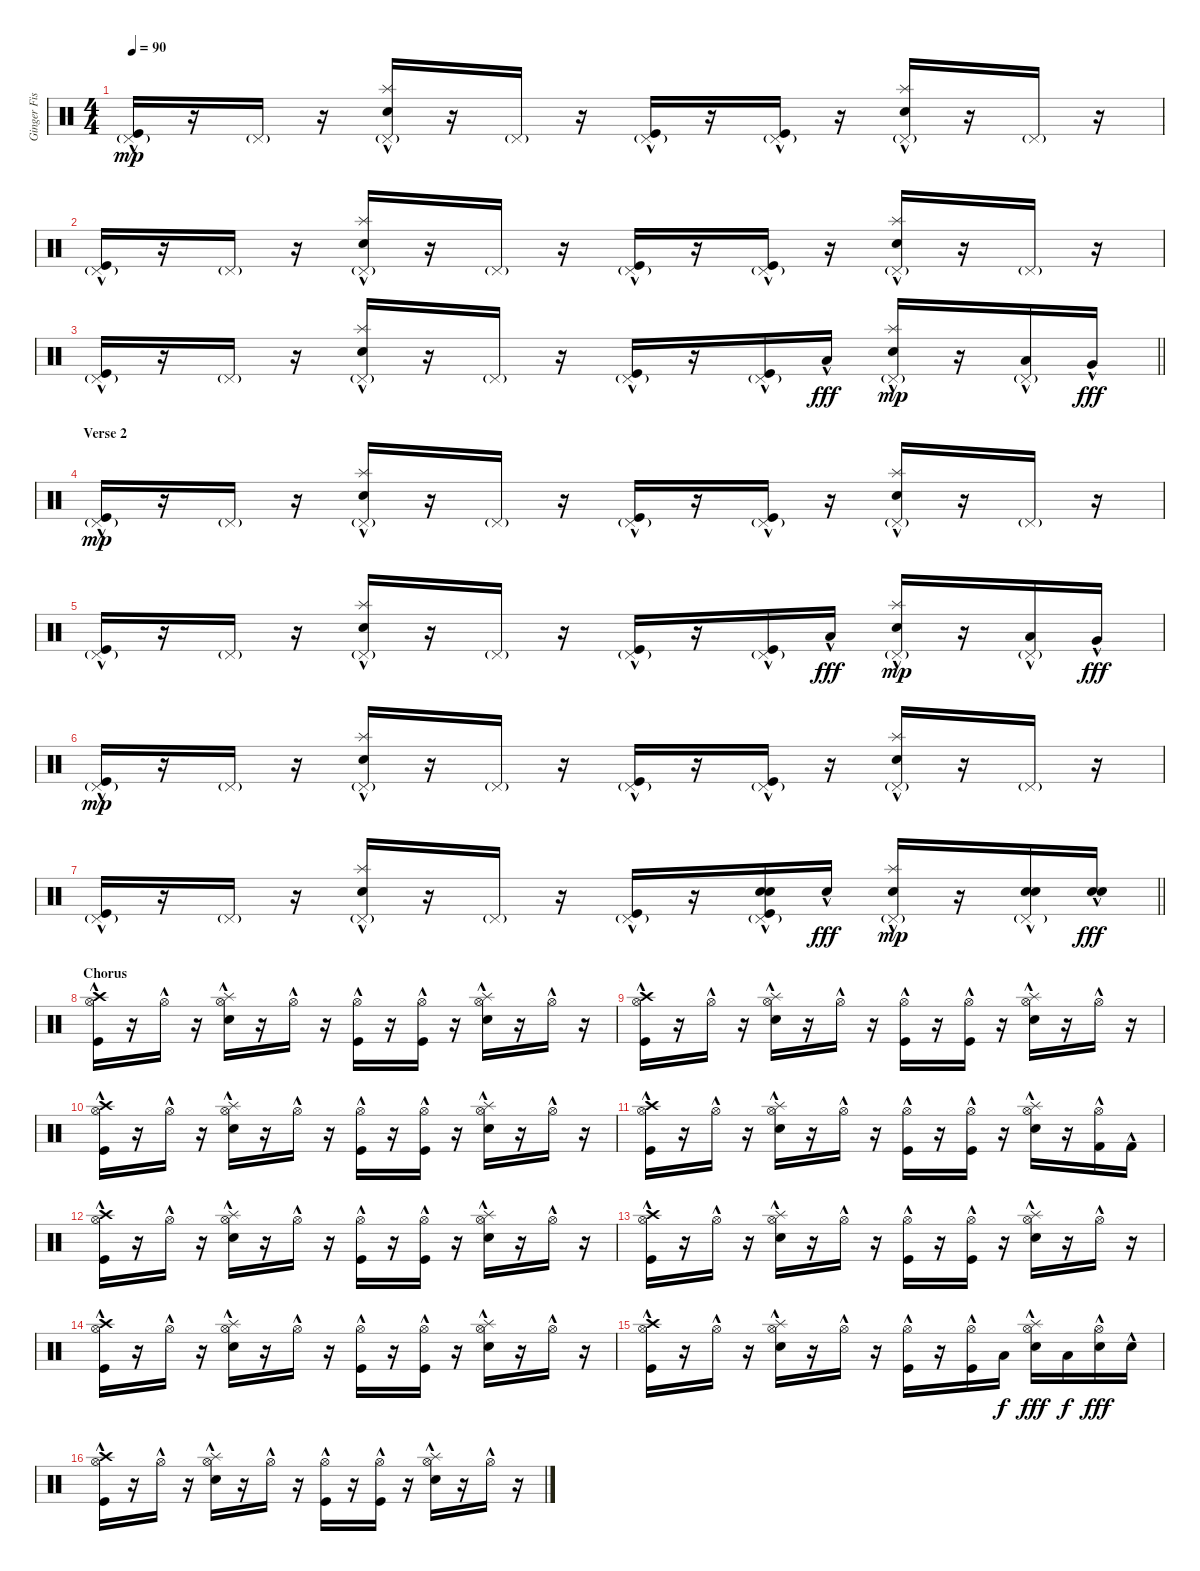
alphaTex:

\track ("Ginger Fish" "Ginger Fis") {instrument percussion}
\staff {score}
\articulation defaults
\ts (4 4)
\tempo 90
\clef neutral
\ks c
("Kick (hit)"{hac} "Pedal Hi-Hat (hit)"{g}).16{dy mp} r.16 "Pedal Hi-Hat (hit)"{g}.16 r.16 ("Splash (hit)" "Electric Snare (hit)"{hac} "Pedal Hi-Hat (hit)"{g}).16 r.16 "Pedal Hi-Hat (hit)"{g}.16 r.16 ("Kick (hit)"{hac} "Pedal Hi-Hat (hit)"{g}).16 r.16 ("Kick (hit)"{hac} "Pedal Hi-Hat (hit)"{g}).16 r.16 ("Splash (hit)" "Electric Snare (hit)"{hac} "Pedal Hi-Hat (hit)"{g}).16 r.16 "Pedal Hi-Hat (hit)"{g}.16 r.16 |
("Kick (hit)"{hac} "Pedal Hi-Hat (hit)"{g}).16 r.16 "Pedal Hi-Hat (hit)"{g}.16 r.16 ("Splash (hit)" "Electric Snare (hit)"{hac} "Pedal Hi-Hat (hit)"{g}).16 r.16 "Pedal Hi-Hat (hit)"{g}.16 r.16 ("Kick (hit)"{hac} "Pedal Hi-Hat (hit)"{g}).16 r.16 ("Kick (hit)"{hac} "Pedal Hi-Hat (hit)"{g}).16 r.16 ("Splash (hit)" "Electric Snare (hit)"{hac} "Pedal Hi-Hat (hit)"{g}).16 r.16 "Pedal Hi-Hat (hit)"{g}.16 r.16 |
\barLineRight lightlight
("Kick (hit)"{hac} "Pedal Hi-Hat (hit)"{g}).16 r.16 "Pedal Hi-Hat (hit)"{g}.16 r.16 ("Splash (hit)" "Electric Snare (hit)"{hac} "Pedal Hi-Hat (hit)"{g}).16 r.16 "Pedal Hi-Hat (hit)"{g}.16 r.16 ("Kick (hit)"{hac} "Pedal Hi-Hat (hit)"{g}).16 r.16 ("Kick (hit)"{hac} "Pedal Hi-Hat (hit)"{g}).16 "Low Tom (hit)"{hac}.16{dy fff} ("Splash (hit)" "Electric Snare (hit)"{hac} "Pedal Hi-Hat (hit)"{g}).16{dy mp} r.16 ("Low Floor Tom (hit)"{hac} "Pedal Hi-Hat (hit)"{g}).16 "Very Low Tom (hit)"{hac}.16{dy fff} |
\section ("" "Verse 2")
("Kick (hit)"{hac} "Pedal Hi-Hat (hit)"{g}).16{dy mp} r.16 "Pedal Hi-Hat (hit)"{g}.16 r.16 ("Splash (hit)" "Electric Snare (hit)"{hac} "Pedal Hi-Hat (hit)"{g}).16 r.16 "Pedal Hi-Hat (hit)"{g}.16 r.16 ("Kick (hit)"{hac} "Pedal Hi-Hat (hit)"{g}).16 r.16 ("Kick (hit)"{hac} "Pedal Hi-Hat (hit)"{g}).16 r.16 ("Splash (hit)" "Electric Snare (hit)"{hac} "Pedal Hi-Hat (hit)"{g}).16 r.16 "Pedal Hi-Hat (hit)"{g}.16 r.16 |
("Kick (hit)"{hac} "Pedal Hi-Hat (hit)"{g}).16 r.16 "Pedal Hi-Hat (hit)"{g}.16 r.16 ("Splash (hit)" "Electric Snare (hit)"{hac} "Pedal Hi-Hat (hit)"{g}).16 r.16 "Pedal Hi-Hat (hit)"{g}.16 r.16 ("Kick (hit)"{hac} "Pedal Hi-Hat (hit)"{g}).16 r.16 ("Kick (hit)"{hac} "Pedal Hi-Hat (hit)"{g}).16 "Low Tom (hit)"{hac}.16{dy fff} ("Splash (hit)" "Electric Snare (hit)"{hac} "Pedal Hi-Hat (hit)"{g}).16{dy mp} r.16 ("Low Floor Tom (hit)"{hac} "Pedal Hi-Hat (hit)"{g}).16 "Very Low Tom (hit)"{hac}.16{dy fff} |
("Kick (hit)"{hac} "Pedal Hi-Hat (hit)"{g}).16{dy mp} r.16 "Pedal Hi-Hat (hit)"{g}.16 r.16 ("Splash (hit)" "Electric Snare (hit)"{hac} "Pedal Hi-Hat (hit)"{g}).16 r.16 "Pedal Hi-Hat (hit)"{g}.16 r.16 ("Kick (hit)"{hac} "Pedal Hi-Hat (hit)"{g}).16 r.16 ("Kick (hit)"{hac} "Pedal Hi-Hat (hit)"{g}).16 r.16 ("Splash (hit)" "Electric Snare (hit)"{hac} "Pedal Hi-Hat (hit)"{g}).16 r.16 "Pedal Hi-Hat (hit)"{g}.16 r.16 |
\barLineRight lightlight
("Kick (hit)"{hac} "Pedal Hi-Hat (hit)"{g}).16 r.16 "Pedal Hi-Hat (hit)"{g}.16 r.16 ("Splash (hit)" "Electric Snare (hit)"{hac} "Pedal Hi-Hat (hit)"{g}).16 r.16 "Pedal Hi-Hat (hit)"{g}.16 r.16 ("Kick (hit)"{hac} "Pedal Hi-Hat (hit)"{g}).16 r.16 ("Electric Snare (hit)"{hac} "Electric Snare (hit)"{hac} "Kick (hit)"{hac} "Pedal Hi-Hat (hit)"{g}).16 "Electric Snare (hit)"{hac}.16{dy fff} ("Splash (hit)"{hac} "Electric Snare (hit)"{hac} "Pedal Hi-Hat (hit)"{g}).16{dy mp} r.16 ("Electric Snare (hit)"{hac} "Electric Snare (hit)"{hac} "Pedal Hi-Hat (hit)"{g}).16 ("Electric Snare (hit)"{hac} "Electric Snare (hit)"{hac}).16{dy fff} |
\section ("" "Chorus")
("Crash high (hit)" "Kick (hit)"{hac} "Hi-Hat (open)"{hac}).16 r.16 "Hi-Hat (open)"{hac}.16 r.16 ("Splash (hit)"{hac} "Electric Snare (hit)"{hac} "Hi-Hat (open)"{hac}).16 r.16 "Hi-Hat (open)"{hac}.16 r.16 ("Kick (hit)"{hac} "Hi-Hat (open)"{hac}).16 r.16 ("Kick (hit)"{hac} "Hi-Hat (open)"{hac}).16 r.16 ("Splash (hit)"{hac} "Electric Snare (hit)"{hac} "Hi-Hat (open)"{hac}).16 r.16 "Hi-Hat (open)"{hac}.16 r.16 |
("Crash high (hit)" "Kick (hit)"{hac} "Hi-Hat (open)"{hac}).16 r.16 "Hi-Hat (open)"{hac}.16 r.16 ("Splash (hit)"{hac} "Electric Snare (hit)"{hac} "Hi-Hat (open)"{hac}).16 r.16 "Hi-Hat (open)"{hac}.16 r.16 ("Kick (hit)"{hac} "Hi-Hat (open)"{hac}).16 r.16 ("Kick (hit)"{hac} "Hi-Hat (open)"{hac}).16 r.16 ("Splash (hit)"{hac} "Electric Snare (hit)"{hac} "Hi-Hat (open)"{hac}).16 r.16 "Hi-Hat (open)"{hac}.16 r.16 |
("Crash high (hit)" "Kick (hit)"{hac} "Hi-Hat (open)"{hac}).16 r.16 "Hi-Hat (open)"{hac}.16 r.16 ("Splash (hit)"{hac} "Electric Snare (hit)"{hac} "Hi-Hat (open)"{hac}).16 r.16 "Hi-Hat (open)"{hac}.16 r.16 ("Kick (hit)"{hac} "Hi-Hat (open)"{hac}).16 r.16 ("Kick (hit)"{hac} "Hi-Hat (open)"{hac}).16 r.16 ("Splash (hit)"{hac} "Electric Snare (hit)"{hac} "Hi-Hat (open)"{hac}).16 r.16 "Hi-Hat (open)"{hac}.16 r.16 |
("Crash high (hit)" "Kick (hit)"{hac} "Hi-Hat (open)"{hac}).16 r.16 "Hi-Hat (open)"{hac}.16 r.16 ("Splash (hit)"{hac} "Electric Snare (hit)"{hac} "Hi-Hat (open)"{hac}).16 r.16 "Hi-Hat (open)"{hac}.16 r.16 ("Kick (hit)"{hac} "Hi-Hat (open)"{hac}).16 r.16 ("Kick (hit)"{hac} "Hi-Hat (open)"{hac}).16 r.16 ("Splash (hit)"{hac} "Electric Snare (hit)"{hac} "Hi-Hat (open)"{hac}).16 r.16 ("Kick (hit) 2"{hac} "Hi-Hat (open)"{hac}).16 "Kick (hit) 2"{hac}.16 |
("Crash high (hit)" "Kick (hit)"{hac} "Hi-Hat (open)"{hac}).16 r.16 "Hi-Hat (open)"{hac}.16 r.16 ("Splash (hit)"{hac} "Electric Snare (hit)"{hac} "Hi-Hat (open)"{hac}).16 r.16 "Hi-Hat (open)"{hac}.16 r.16 ("Kick (hit)"{hac} "Hi-Hat (open)"{hac}).16 r.16 ("Kick (hit)"{hac} "Hi-Hat (open)"{hac}).16 r.16 ("Splash (hit)"{hac} "Electric Snare (hit)"{hac} "Hi-Hat (open)"{hac}).16 r.16 "Hi-Hat (open)"{hac}.16 r.16 |
("Crash high (hit)" "Kick (hit)"{hac} "Hi-Hat (open)"{hac}).16 r.16 "Hi-Hat (open)"{hac}.16 r.16 ("Splash (hit)"{hac} "Electric Snare (hit)"{hac} "Hi-Hat (open)"{hac}).16 r.16 "Hi-Hat (open)"{hac}.16 r.16 ("Kick (hit)"{hac} "Hi-Hat (open)"{hac}).16 r.16 ("Kick (hit)"{hac} "Hi-Hat (open)"{hac}).16 r.16 ("Splash (hit)"{hac} "Electric Snare (hit)"{hac} "Hi-Hat (open)"{hac}).16 r.16 "Hi-Hat (open)"{hac}.16 r.16 |
("Crash high (hit)" "Kick (hit)"{hac} "Hi-Hat (open)"{hac}).16 r.16 "Hi-Hat (open)"{hac}.16 r.16 ("Splash (hit)"{hac} "Electric Snare (hit)"{hac} "Hi-Hat (open)"{hac}).16 r.16 "Hi-Hat (open)"{hac}.16 r.16 ("Kick (hit)"{hac} "Hi-Hat (open)"{hac}).16 r.16 ("Kick (hit)"{hac} "Hi-Hat (open)"{hac}).16 r.16 ("Splash (hit)"{hac} "Electric Snare (hit)"{hac} "Hi-Hat (open)"{hac}).16 r.16 "Hi-Hat (open)"{hac}.16 r.16 |
("Crash high (hit)" "Kick (hit)"{hac} "Hi-Hat (open)"{hac}).16 r.16 "Hi-Hat (open)"{hac}.16 r.16 ("Splash (hit)"{hac} "Electric Snare (hit)"{hac} "Hi-Hat (open)"{hac}).16 r.16 "Hi-Hat (open)"{hac}.16 r.16 ("Kick (hit)"{hac} "Hi-Hat (open)"{hac}).16 r.16 ("Kick (hit)"{hac} "Hi-Hat (open)"{hac}).16 "Low Tom (hit)".16{dy f} ("Splash (hit)"{hac} "Electric Snare (hit)"{hac} "Hi-Hat (open)"{hac}).16{dy fff} "Low Floor Tom (hit)".16{dy f} ("Electric Snare (hit)"{hac} "Hi-Hat (open)"{hac}).16{dy fff} "Electric Snare (hit)"{hac}.16 |
("Crash high (hit)" "Kick (hit)"{hac} "Hi-Hat (open)"{hac}).16 r.16 "Hi-Hat (open)"{hac}.16 r.16 ("Splash (hit)"{hac} "Electric Snare (hit)"{hac} "Hi-Hat (open)"{hac}).16 r.16 "Hi-Hat (open)"{hac}.16 r.16 ("Kick (hit)"{hac} "Hi-Hat (open)"{hac}).16 r.16 ("Kick (hit)"{hac} "Hi-Hat (open)"{hac}).16 r.16 ("Splash (hit)"{hac} "Electric Snare (hit)"{hac} "Hi-Hat (open)"{hac}).16 r.16 "Hi-Hat (open)"{hac}.16 r.16
